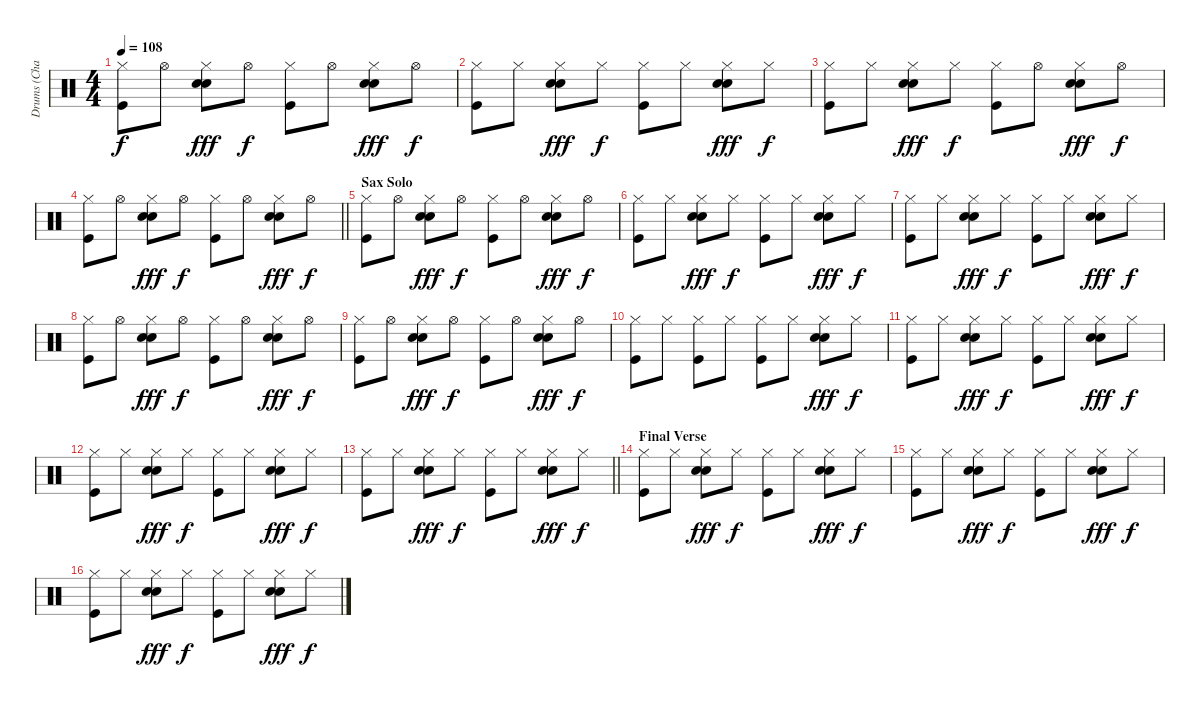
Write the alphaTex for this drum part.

\track ("Drums (Charlie)" "Drums (Cha") {instrument percussion}
\staff {score}
\articulation defaults
\ts (4 4)
\tempo 108
\clef neutral
\ks c
("Hi-Hat (closed)" "Kick (hit)").8{dy f} "Hi-Hat (open)".8 ("Hi-Hat (closed)" "Snare (hit) 2" "Electric Snare (hit)").8{dy fff} "Hi-Hat (open)".8{dy f} ("Hi-Hat (closed)" "Kick (hit)").8 "Hi-Hat (open)".8 ("Hi-Hat (closed)" "Snare (hit) 2" "Electric Snare (hit)").8{dy fff} "Hi-Hat (open)".8{dy f} |
("Hi-Hat (closed)" "Kick (hit)").8 "Hi-Hat (closed)".8 ("Hi-Hat (closed)" "Snare (hit) 2" "Electric Snare (hit)").8{dy fff} "Hi-Hat (closed)".8{dy f} ("Hi-Hat (closed)" "Kick (hit)").8 "Hi-Hat (closed)".8 ("Hi-Hat (closed)" "Snare (hit) 2" "Electric Snare (hit)").8{dy fff} "Hi-Hat (closed)".8{dy f} |
("Hi-Hat (closed)" "Kick (hit)").8 "Hi-Hat (closed)".8 ("Hi-Hat (closed)" "Snare (hit) 2" "Electric Snare (hit)").8{dy fff} "Hi-Hat (closed)".8{dy f} ("Hi-Hat (closed)" "Kick (hit)").8 "Hi-Hat (open)".8 ("Hi-Hat (closed)" "Snare (hit) 2" "Electric Snare (hit)").8{dy fff} "Hi-Hat (open)".8{dy f} |
\barLineRight lightlight
("Hi-Hat (closed)" "Kick (hit)").8 "Hi-Hat (open)".8 ("Hi-Hat (closed)" "Snare (hit) 2" "Electric Snare (hit)").8{dy fff} "Hi-Hat (open)".8{dy f} ("Hi-Hat (closed)" "Kick (hit)").8 "Hi-Hat (open)".8 ("Hi-Hat (closed)" "Snare (hit) 2" "Electric Snare (hit)").8{dy fff} "Hi-Hat (open)".8{dy f} |
\section ("" "Sax Solo")
("Hi-Hat (closed)" "Kick (hit)").8 "Hi-Hat (open)".8 ("Hi-Hat (closed)" "Snare (hit) 2" "Electric Snare (hit)").8{dy fff} "Hi-Hat (open)".8{dy f} ("Hi-Hat (closed)" "Kick (hit)").8 "Hi-Hat (open)".8 ("Hi-Hat (closed)" "Snare (hit) 2" "Electric Snare (hit)").8{dy fff} "Hi-Hat (open)".8{dy f} |
("Hi-Hat (closed)" "Kick (hit)").8 "Hi-Hat (closed)".8 ("Hi-Hat (closed)" "Snare (hit) 2" "Electric Snare (hit)").8{dy fff} "Hi-Hat (closed)".8{dy f} ("Hi-Hat (closed)" "Kick (hit)").8 "Hi-Hat (closed)".8 ("Hi-Hat (closed)" "Snare (hit) 2" "Electric Snare (hit)").8{dy fff} "Hi-Hat (closed)".8{dy f} |
("Hi-Hat (closed)" "Kick (hit)").8 "Hi-Hat (closed)".8 ("Hi-Hat (closed)" "Snare (hit) 2" "Electric Snare (hit)").8{dy fff} "Hi-Hat (closed)".8{dy f} ("Hi-Hat (closed)" "Kick (hit)").8 "Hi-Hat (closed)".8 ("Hi-Hat (closed)" "Snare (hit) 2" "Electric Snare (hit)").8{dy fff} "Hi-Hat (closed)".8{dy f} |
("Hi-Hat (closed)" "Kick (hit)").8 "Hi-Hat (open)".8 ("Hi-Hat (closed)" "Snare (hit) 2" "Electric Snare (hit)").8{dy fff} "Hi-Hat (open)".8{dy f} ("Hi-Hat (closed)" "Kick (hit)").8 "Hi-Hat (open)".8 ("Hi-Hat (closed)" "Snare (hit) 2" "Electric Snare (hit)").8{dy fff} "Hi-Hat (open)".8{dy f} |
("Hi-Hat (closed)" "Kick (hit)").8 "Hi-Hat (open)".8 ("Hi-Hat (closed)" "Snare (hit) 2" "Electric Snare (hit)").8{dy fff} "Hi-Hat (open)".8{dy f} ("Hi-Hat (closed)" "Kick (hit)").8 "Hi-Hat (open)".8 ("Hi-Hat (closed)" "Snare (hit) 2" "Electric Snare (hit)").8{dy fff} "Hi-Hat (open)".8{dy f} |
("Hi-Hat (closed)" "Kick (hit)").8 "Hi-Hat (closed)".8 ("Hi-Hat (closed)" "Kick (hit)").8 "Hi-Hat (closed)".8 ("Hi-Hat (closed)" "Kick (hit)").8 "Hi-Hat (closed)".8 ("Hi-Hat (closed)" "Snare (hit) 2" "Electric Snare (hit)").8{dy fff} "Hi-Hat (closed)".8{dy f} |
("Hi-Hat (closed)" "Kick (hit)").8 "Hi-Hat (closed)".8 ("Hi-Hat (closed)" "Snare (hit) 2" "Electric Snare (hit)").8{dy fff} "Hi-Hat (closed)".8{dy f} ("Hi-Hat (closed)" "Kick (hit)").8 "Hi-Hat (closed)".8 ("Hi-Hat (closed)" "Snare (hit) 2" "Electric Snare (hit)").8{dy fff} "Hi-Hat (closed)".8{dy f} |
("Hi-Hat (closed)" "Kick (hit)").8 "Hi-Hat (closed)".8 ("Hi-Hat (closed)" "Snare (hit) 2" "Electric Snare (hit)").8{dy fff} "Hi-Hat (closed)".8{dy f} ("Hi-Hat (closed)" "Kick (hit)").8 "Hi-Hat (closed)".8 ("Hi-Hat (closed)" "Snare (hit) 2" "Electric Snare (hit)").8{dy fff} "Hi-Hat (closed)".8{dy f} |
\barLineRight lightlight
("Hi-Hat (closed)" "Kick (hit)").8 "Hi-Hat (closed)".8 ("Hi-Hat (closed)" "Snare (hit) 2" "Electric Snare (hit)").8{dy fff} "Hi-Hat (closed)".8{dy f} ("Hi-Hat (closed)" "Kick (hit)").8 "Hi-Hat (closed)".8 ("Hi-Hat (closed)" "Snare (hit) 2" "Electric Snare (hit)").8{dy fff} "Hi-Hat (closed)".8{dy f} |
\section ("" "Final Verse")
("Hi-Hat (closed)" "Kick (hit)").8 "Hi-Hat (closed)".8 ("Hi-Hat (closed)" "Snare (hit) 2" "Electric Snare (hit)").8{dy fff} "Hi-Hat (closed)".8{dy f} ("Hi-Hat (closed)" "Kick (hit)").8 "Hi-Hat (closed)".8 ("Hi-Hat (closed)" "Snare (hit) 2" "Electric Snare (hit)").8{dy fff} "Hi-Hat (closed)".8{dy f} |
("Hi-Hat (closed)" "Kick (hit)").8 "Hi-Hat (closed)".8 ("Hi-Hat (closed)" "Snare (hit) 2" "Electric Snare (hit)").8{dy fff} "Hi-Hat (closed)".8{dy f} ("Hi-Hat (closed)" "Kick (hit)").8 "Hi-Hat (closed)".8 ("Hi-Hat (closed)" "Snare (hit) 2" "Electric Snare (hit)").8{dy fff} "Hi-Hat (closed)".8{dy f} |
("Hi-Hat (closed)" "Kick (hit)").8 "Hi-Hat (closed)".8 ("Hi-Hat (closed)" "Snare (hit) 2" "Electric Snare (hit)").8{dy fff} "Hi-Hat (closed)".8{dy f} ("Hi-Hat (closed)" "Kick (hit)").8 "Hi-Hat (closed)".8 ("Hi-Hat (closed)" "Snare (hit) 2" "Electric Snare (hit)").8{dy fff} "Hi-Hat (closed)".8{dy f}
